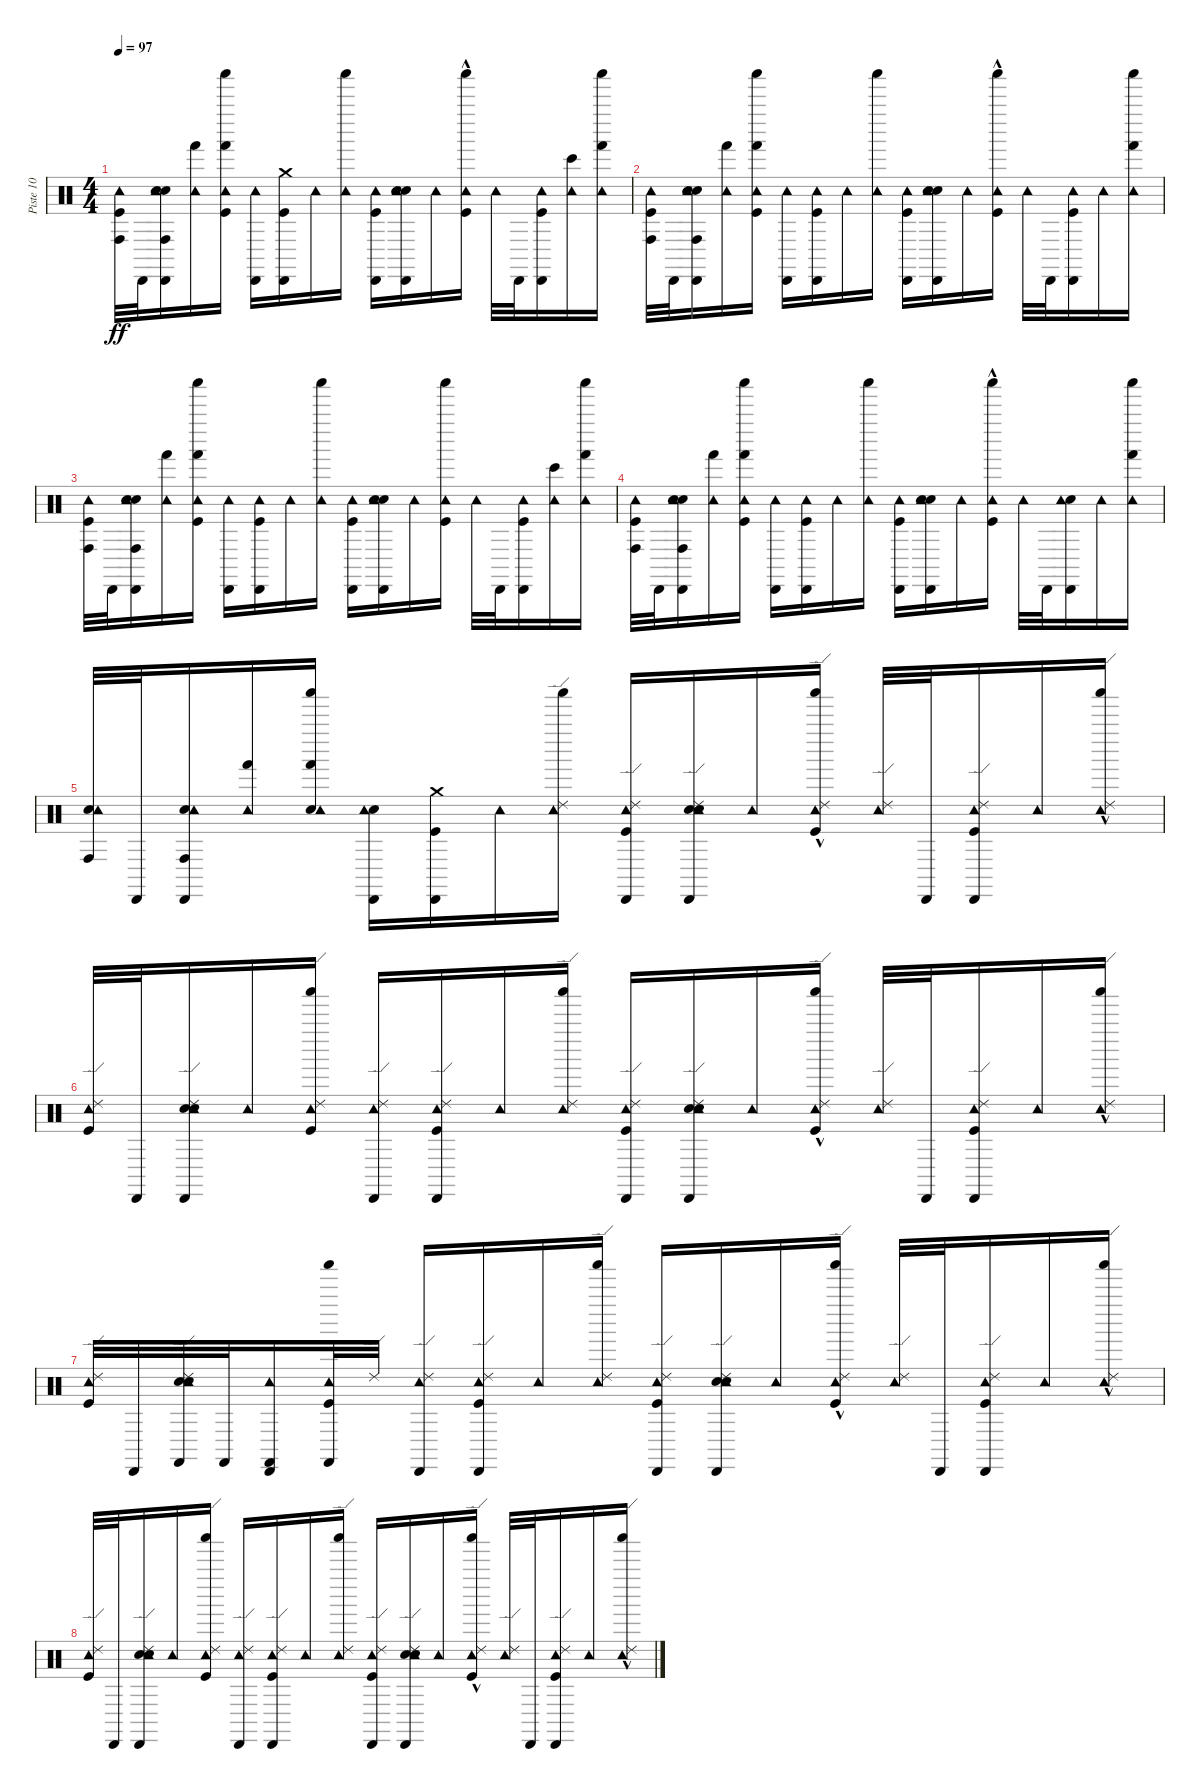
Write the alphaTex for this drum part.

\track ("Piste 10" "Piste 10") {instrument percussion}
\staff {score}
\articulation defaults
\ts (4 4)
\tempo 97
\clef neutral
\ks c
("Conga high (hit)" "Kick (hit)" "Tambourine (hit)").32{dy ff} "Cabasa (hit)".32 ("Conga high (hit)" "Cabasa (hit)" "Hand Clap (hit)" "Electric Snare (hit)" "Tambourine (hit)").16 ("Hand (hit)" "Tambourine (hit)").16 ("Hand (hit)" "Shaker (hit)" "Kick (hit)" "Tambourine (hit)").16 ("Cabasa (hit)" "Tambourine (hit)").16 ("Cabasa (hit)" "Kick (hit)" "Crash medium (hit)").16 "Tambourine (hit)".16 ("Shaker (hit)" "Tambourine (hit)").16 ("Cabasa (hit)" "Kick (hit)" "Tambourine (hit)").16 ("Cabasa (hit)" "Hand Clap (hit)" "Electric Snare (hit)" "Tambourine (hit)").16 "Tambourine (hit)".16 ("Shaker (hit)"{hac} "Kick (hit)" "Tambourine (hit)").16 "Tambourine (hit)".32 "Cabasa (hit)".32 ("Cabasa (hit)" "Kick (hit)" "Tambourine (hit)").16 ("Bongo High (hit)" "Tambourine (hit)").16 ("Hand (hit)" "Shaker (hit)" "Tambourine (hit)").16 |
("Conga high (hit)" "Kick (hit)" "Tambourine (hit)").32 "Cabasa (hit)".32 ("Conga high (hit)" "Cabasa (hit)" "Hand Clap (hit)" "Electric Snare (hit)" "Tambourine (hit)").16 ("Hand (hit)" "Tambourine (hit)").16 ("Hand (hit)" "Shaker (hit)" "Kick (hit)" "Tambourine (hit)").16 ("Cabasa (hit)" "Tambourine (hit)").16 ("Cabasa (hit)" "Kick (hit)" "Tambourine (hit)").16 "Tambourine (hit)".16 ("Shaker (hit)" "Tambourine (hit)").16 ("Cabasa (hit)" "Kick (hit)" "Tambourine (hit)").16 ("Cabasa (hit)" "Hand Clap (hit)" "Electric Snare (hit)" "Tambourine (hit)").16 "Tambourine (hit)".16 ("Shaker (hit)"{hac} "Kick (hit)" "Tambourine (hit)").16 "Tambourine (hit)".32 "Cabasa (hit)".32 ("Cabasa (hit)" "Kick (hit)" "Tambourine (hit)").16 "Tambourine (hit)".16 ("Hand (hit)" "Shaker (hit)" "Tambourine (hit)").16 |
("Conga high (hit)" "Kick (hit)" "Tambourine (hit)").32 "Cabasa (hit)".32 ("Conga high (hit)" "Cabasa (hit)" "Hand Clap (hit)" "Electric Snare (hit)" "Tambourine (hit)").16 ("Hand (hit)" "Tambourine (hit)").16 ("Hand (hit)" "Shaker (hit)" "Kick (hit)" "Tambourine (hit)").16 ("Cabasa (hit)" "Tambourine (hit)").16 ("Cabasa (hit)" "Kick (hit)" "Tambourine (hit)").16 "Tambourine (hit)".16 ("Shaker (hit)" "Tambourine (hit)").16 ("Cabasa (hit)" "Kick (hit)" "Tambourine (hit)").16 ("Cabasa (hit)" "Hand Clap (hit)" "Electric Snare (hit)" "Tambourine (hit)").16 "Tambourine (hit)".16 ("Shaker (hit)" "Kick (hit)" "Tambourine (hit)").16 "Tambourine (hit)".32 "Cabasa (hit)".32 ("Cabasa (hit)" "Kick (hit)" "Tambourine (hit)").16 ("Bongo High (hit)" "Tambourine (hit)").16 ("Hand (hit)" "Shaker (hit)" "Tambourine (hit)").16 |
("Conga high (hit)" "Kick (hit)" "Tambourine (hit)").32 "Cabasa (hit)".32 ("Conga high (hit)" "Cabasa (hit)" "Hand Clap (hit)" "Electric Snare (hit)" "Tambourine (hit)").16 ("Hand (hit)" "Tambourine (hit)").16 ("Hand (hit)" "Shaker (hit)" "Kick (hit)" "Tambourine (hit)").16 ("Cabasa (hit)" "Tambourine (hit)").16 ("Cabasa (hit)" "Kick (hit)" "Tambourine (hit)").16 "Tambourine (hit)".16 ("Shaker (hit)" "Tambourine (hit)").16 ("Cabasa (hit)" "Kick (hit)" "Tambourine (hit)").16 ("Cabasa (hit)" "Hand Clap (hit)" "Electric Snare (hit)" "Tambourine (hit)").16 "Tambourine (hit)".16 ("Shaker (hit)"{hac} "Kick (hit)" "Tambourine (hit)").16 "Tambourine (hit)".32 "Cabasa (hit)".32 ("Cabasa (hit)" "Snare (hit) 2" "Tambourine (hit)").16 "Tambourine (hit)".16 ("Hand (hit)" "Shaker (hit)" "Tambourine (hit)").16 |
("Conga high (hit)" "Snare (hit) 2" "Tambourine (hit)").32 "Cabasa (hit)".32 ("Conga high (hit)" "Cabasa (hit)" "Snare (hit) 2" "Tambourine (hit)").16 ("Hand (hit)" "Tambourine (hit)").16 ("Hand (hit)" "Shaker (hit)" "Snare (hit) 2" "Tambourine (hit)").16 ("Cabasa (hit)" "Snare (hit) 2" "Tambourine (hit)").16 ("Cabasa (hit)" "Kick (hit)" "Crash medium (hit)").16 "Tambourine (hit)".16 ("Shaker (hit)" "Tambourine (hit)" "Ride (edge) 2").16 ("Cabasa (hit)" "Kick (hit)" "Tambourine (hit)" "Ride (edge) 2").16 ("Cabasa (hit)" "Hand Clap (hit)" "Electric Snare (hit)" "Tambourine (hit)" "Ride (edge) 2").16 "Tambourine (hit)".16 ("Shaker (hit)"{hac} "Kick (hit)" "Tambourine (hit)" "Ride (edge) 2").16 ("Tambourine (hit)" "Ride (edge) 2").32 "Cabasa (hit)".32 ("Cabasa (hit)" "Kick (hit)" "Tambourine (hit)" "Ride (edge) 2").16 "Tambourine (hit)".16 ("Shaker (hit)"{hac} "Tambourine (hit)" "Ride (edge) 2").16 |
("Kick (hit)" "Tambourine (hit)" "Ride (edge) 2").32 "Cabasa (hit)".32 ("Cabasa (hit)" "Hand Clap (hit)" "Electric Snare (hit)" "Tambourine (hit)" "Ride (edge) 2").16 "Tambourine (hit)".16 ("Shaker (hit)" "Kick (hit)" "Tambourine (hit)" "Ride (edge) 2").16 ("Cabasa (hit)" "Tambourine (hit)" "Ride (edge) 2").16 ("Cabasa (hit)" "Kick (hit)" "Tambourine (hit)" "Ride (edge) 2").16 "Tambourine (hit)".16 ("Shaker (hit)" "Tambourine (hit)" "Ride (edge) 2").16 ("Cabasa (hit)" "Kick (hit)" "Tambourine (hit)" "Ride (edge) 2").16 ("Cabasa (hit)" "Hand Clap (hit)" "Electric Snare (hit)" "Tambourine (hit)" "Ride (edge) 2").16 "Tambourine (hit)".16 ("Shaker (hit)"{hac} "Kick (hit)" "Tambourine (hit)" "Ride (edge) 2").16 ("Tambourine (hit)" "Ride (edge) 2").32 "Cabasa (hit)".32 ("Cabasa (hit)" "Kick (hit)" "Tambourine (hit)" "Ride (edge) 2").16 "Tambourine (hit)".16 ("Shaker (hit)"{hac} "Tambourine (hit)" "Ride (edge) 2").16 |
("Kick (hit)" "Tambourine (hit)" "Ride (edge) 2").32 "Cabasa (hit)".32 ("Castanets (hit)" "Hand Clap (hit)" "Electric Snare (hit)" "Tambourine (hit)" "Ride (edge) 2").32 "Castanets (hit)".32 ("Cabasa (hit)" "Castanets (hit)" "Tambourine (hit)").16 ("Shaker (hit)" "Castanets (hit)" "Kick (hit)" "Tambourine (hit)").32 "Ride (edge) 2".32 ("Cabasa (hit)" "Tambourine (hit)" "Ride (edge) 2").16 ("Cabasa (hit)" "Kick (hit)" "Tambourine (hit)" "Ride (edge) 2").16 "Tambourine (hit)".16 ("Shaker (hit)" "Tambourine (hit)" "Ride (edge) 2").16 ("Cabasa (hit)" "Kick (hit)" "Tambourine (hit)" "Ride (edge) 2").16 ("Cabasa (hit)" "Hand Clap (hit)" "Electric Snare (hit)" "Tambourine (hit)" "Ride (edge) 2").16 "Tambourine (hit)".16 ("Shaker (hit)"{hac} "Kick (hit)" "Tambourine (hit)" "Ride (edge) 2").16 ("Tambourine (hit)" "Ride (edge) 2").32 "Cabasa (hit)".32 ("Cabasa (hit)" "Kick (hit)" "Tambourine (hit)" "Ride (edge) 2").16 "Tambourine (hit)".16 ("Shaker (hit)"{hac} "Tambourine (hit)" "Ride (edge) 2").16 |
("Kick (hit)" "Tambourine (hit)" "Ride (edge) 2").32 "Cabasa (hit)".32 ("Cabasa (hit)" "Hand Clap (hit)" "Electric Snare (hit)" "Tambourine (hit)" "Ride (edge) 2").16 "Tambourine (hit)".16 ("Shaker (hit)" "Kick (hit)" "Tambourine (hit)" "Ride (edge) 2").16 ("Cabasa (hit)" "Tambourine (hit)" "Ride (edge) 2").16 ("Cabasa (hit)" "Kick (hit)" "Tambourine (hit)" "Ride (edge) 2").16 "Tambourine (hit)".16 ("Shaker (hit)" "Tambourine (hit)" "Ride (edge) 2").16 ("Cabasa (hit)" "Kick (hit)" "Tambourine (hit)" "Ride (edge) 2").16 ("Cabasa (hit)" "Hand Clap (hit)" "Electric Snare (hit)" "Tambourine (hit)" "Ride (edge) 2").16 "Tambourine (hit)".16 ("Shaker (hit)"{hac} "Kick (hit)" "Tambourine (hit)" "Ride (edge) 2").16 ("Tambourine (hit)" "Ride (edge) 2").32 "Cabasa (hit)".32 ("Cabasa (hit)" "Kick (hit)" "Tambourine (hit)" "Ride (edge) 2").16 "Tambourine (hit)".16 ("Shaker (hit)"{hac} "Tambourine (hit)" "Ride (edge) 2").16
